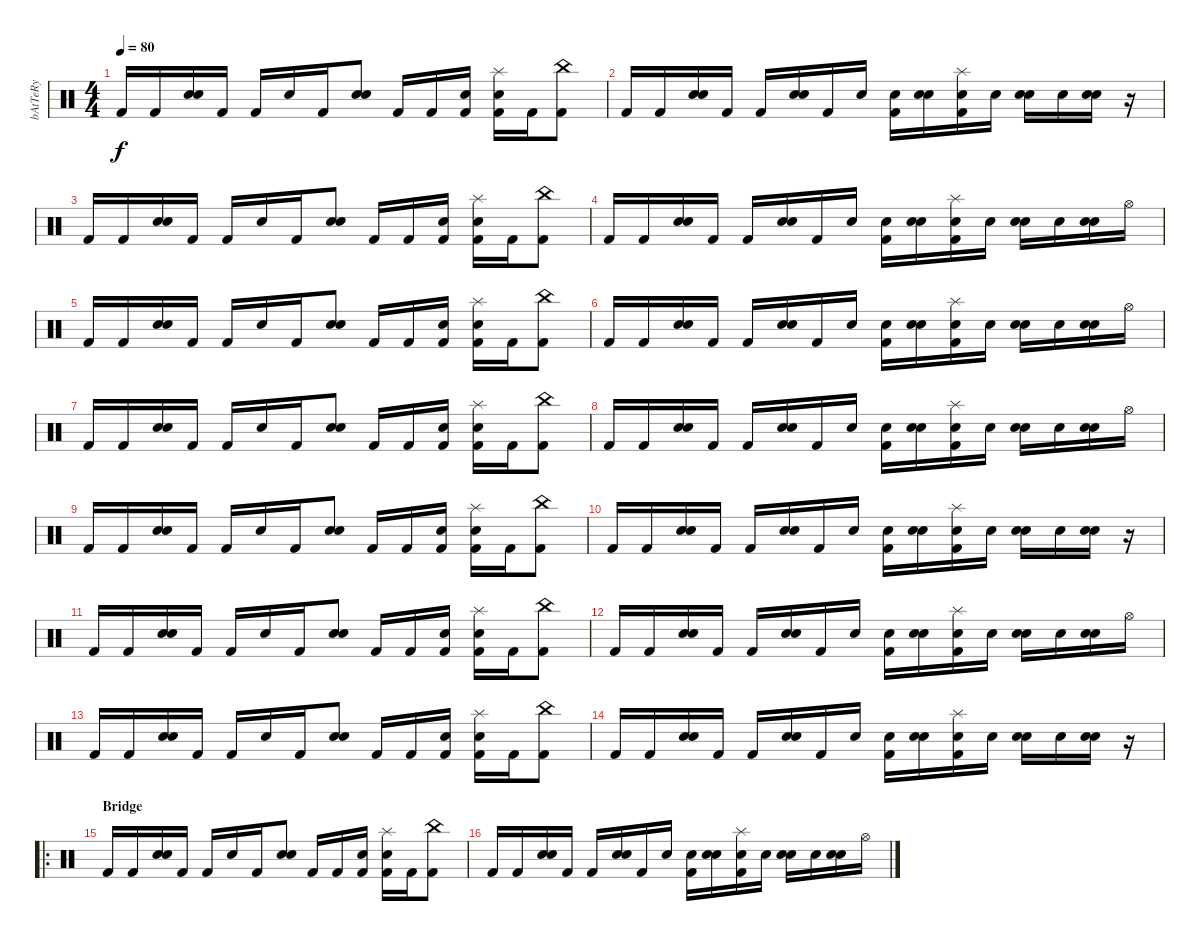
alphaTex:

\track ("bAtTeRy" "bAtTeRy") {instrument percussion}
\staff {score}
\articulation defaults
\ts (4 4)
\tempo 80
\clef neutral
\ks c "Kick (hit) 2".16{dy f} "Kick (hit) 2".16
("Snare (hit) 2" "Electric Snare (hit)").16 "Kick (hit) 2".16 "Kick (hit) 2".16 "Electric Snare (hit)".16 "Kick (hit) 2".16 ("Snare (hit) 2" "Electric Snare (hit)").8 "Kick (hit) 2".16 "Kick (hit) 2".16 ("Snare (hit) 2" "Kick (hit) 2").16 ("Splash (hit)" "Snare (hit) 2" "Kick (hit) 2").16 "Kick (hit) 2".16 ("China (hit)" "Kick (hit) 2").8 |
"Kick (hit) 2".16 "Kick (hit) 2".16 ("Snare (hit) 2" "Electric Snare (hit)").16 "Kick (hit) 2".16 "Kick (hit) 2".16 ("Snare (hit) 2" "Electric Snare (hit)").16 "Kick (hit) 2".16 "Electric Snare (hit)".16 ("Snare (hit) 2" "Kick (hit) 2").16 ("Snare (hit) 2" "Electric Snare (hit)").16 ("Splash (hit)" "Snare (hit) 2" "Kick (hit) 2").16 "Electric Snare (hit)".16 ("Snare (hit) 2" "Electric Snare (hit)").16 "Electric Snare (hit)".16 ("Snare (hit) 2" "Electric Snare (hit)").16 r.16 |
"Kick (hit) 2".16 "Kick (hit) 2".16 ("Snare (hit) 2" "Electric Snare (hit)").16 "Kick (hit) 2".16 "Kick (hit) 2".16 "Electric Snare (hit)".16 "Kick (hit) 2".16 ("Snare (hit) 2" "Electric Snare (hit)").8 "Kick (hit) 2".16 "Kick (hit) 2".16 ("Snare (hit) 2" "Kick (hit) 2").16 ("Splash (hit)" "Snare (hit) 2" "Kick (hit) 2").16 "Kick (hit) 2".16 ("China (hit)" "Kick (hit) 2").8 |
"Kick (hit) 2".16 "Kick (hit) 2".16 ("Snare (hit) 2" "Electric Snare (hit)").16 "Kick (hit) 2".16 "Kick (hit) 2".16 ("Snare (hit) 2" "Electric Snare (hit)").16 "Kick (hit) 2".16 "Electric Snare (hit)".16 ("Snare (hit) 2" "Kick (hit) 2").16 ("Snare (hit) 2" "Electric Snare (hit)").16 ("Splash (hit)" "Snare (hit) 2" "Kick (hit) 2").16 "Electric Snare (hit)".16 ("Snare (hit) 2" "Electric Snare (hit)").16 "Electric Snare (hit)".16 ("Snare (hit) 2" "Electric Snare (hit)").16 "Hi-Hat (open)".16 |
"Kick (hit) 2".16 "Kick (hit) 2".16 ("Snare (hit) 2" "Electric Snare (hit)").16 "Kick (hit) 2".16 "Kick (hit) 2".16 "Electric Snare (hit)".16 "Kick (hit) 2".16 ("Snare (hit) 2" "Electric Snare (hit)").8 "Kick (hit) 2".16 "Kick (hit) 2".16 ("Snare (hit) 2" "Kick (hit) 2").16 ("Splash (hit)" "Snare (hit) 2" "Kick (hit) 2").16 "Kick (hit) 2".16 ("China (hit)" "Kick (hit) 2").8 |
"Kick (hit) 2".16 "Kick (hit) 2".16 ("Snare (hit) 2" "Electric Snare (hit)").16 "Kick (hit) 2".16 "Kick (hit) 2".16 ("Snare (hit) 2" "Electric Snare (hit)").16 "Kick (hit) 2".16 "Electric Snare (hit)".16 ("Snare (hit) 2" "Kick (hit) 2").16 ("Snare (hit) 2" "Electric Snare (hit)").16 ("Splash (hit)" "Snare (hit) 2" "Kick (hit) 2").16 "Electric Snare (hit)".16 ("Snare (hit) 2" "Electric Snare (hit)").16 "Electric Snare (hit)".16 ("Snare (hit) 2" "Electric Snare (hit)").16 "Hi-Hat (open)".16 |
"Kick (hit) 2".16 "Kick (hit) 2".16 ("Snare (hit) 2" "Electric Snare (hit)").16 "Kick (hit) 2".16 "Kick (hit) 2".16 "Electric Snare (hit)".16 "Kick (hit) 2".16 ("Snare (hit) 2" "Electric Snare (hit)").8 "Kick (hit) 2".16 "Kick (hit) 2".16 ("Snare (hit) 2" "Kick (hit) 2").16 ("Splash (hit)" "Snare (hit) 2" "Kick (hit) 2").16 "Kick (hit) 2".16 ("China (hit)" "Kick (hit) 2").8 |
"Kick (hit) 2".16 "Kick (hit) 2".16 ("Snare (hit) 2" "Electric Snare (hit)").16 "Kick (hit) 2".16 "Kick (hit) 2".16 ("Snare (hit) 2" "Electric Snare (hit)").16 "Kick (hit) 2".16 "Electric Snare (hit)".16 ("Snare (hit) 2" "Kick (hit) 2").16 ("Snare (hit) 2" "Electric Snare (hit)").16 ("Splash (hit)" "Snare (hit) 2" "Kick (hit) 2").16 "Electric Snare (hit)".16 ("Snare (hit) 2" "Electric Snare (hit)").16 "Electric Snare (hit)".16 ("Snare (hit) 2" "Electric Snare (hit)").16 "Hi-Hat (open)".16 |
"Kick (hit) 2".16 "Kick (hit) 2".16 ("Snare (hit) 2" "Electric Snare (hit)").16 "Kick (hit) 2".16 "Kick (hit) 2".16 "Electric Snare (hit)".16 "Kick (hit) 2".16 ("Snare (hit) 2" "Electric Snare (hit)").8 "Kick (hit) 2".16 "Kick (hit) 2".16 ("Snare (hit) 2" "Kick (hit) 2").16 ("Splash (hit)" "Snare (hit) 2" "Kick (hit) 2").16 "Kick (hit) 2".16 ("China (hit)" "Kick (hit) 2").8 |
"Kick (hit) 2".16 "Kick (hit) 2".16 ("Snare (hit) 2" "Electric Snare (hit)").16 "Kick (hit) 2".16 "Kick (hit) 2".16 ("Snare (hit) 2" "Electric Snare (hit)").16 "Kick (hit) 2".16 "Electric Snare (hit)".16 ("Snare (hit) 2" "Kick (hit) 2").16 ("Snare (hit) 2" "Electric Snare (hit)").16 ("Splash (hit)" "Snare (hit) 2" "Kick (hit) 2").16 "Electric Snare (hit)".16 ("Snare (hit) 2" "Electric Snare (hit)").16 "Electric Snare (hit)".16 ("Snare (hit) 2" "Electric Snare (hit)").16 r.16 |
"Kick (hit) 2".16 "Kick (hit) 2".16 ("Snare (hit) 2" "Electric Snare (hit)").16 "Kick (hit) 2".16 "Kick (hit) 2".16 "Electric Snare (hit)".16 "Kick (hit) 2".16 ("Snare (hit) 2" "Electric Snare (hit)").8 "Kick (hit) 2".16 "Kick (hit) 2".16 ("Snare (hit) 2" "Kick (hit) 2").16 ("Splash (hit)" "Snare (hit) 2" "Kick (hit) 2").16 "Kick (hit) 2".16 ("China (hit)" "Kick (hit) 2").8 |
"Kick (hit) 2".16 "Kick (hit) 2".16 ("Snare (hit) 2" "Electric Snare (hit)").16 "Kick (hit) 2".16 "Kick (hit) 2".16 ("Snare (hit) 2" "Electric Snare (hit)").16 "Kick (hit) 2".16 "Electric Snare (hit)".16 ("Snare (hit) 2" "Kick (hit) 2").16 ("Snare (hit) 2" "Electric Snare (hit)").16 ("Splash (hit)" "Snare (hit) 2" "Kick (hit) 2").16 "Electric Snare (hit)".16 ("Snare (hit) 2" "Electric Snare (hit)").16 "Electric Snare (hit)".16 ("Snare (hit) 2" "Electric Snare (hit)").16 "Hi-Hat (open)".16 |
"Kick (hit) 2".16 "Kick (hit) 2".16 ("Snare (hit) 2" "Electric Snare (hit)").16 "Kick (hit) 2".16 "Kick (hit) 2".16 "Electric Snare (hit)".16 "Kick (hit) 2".16 ("Snare (hit) 2" "Electric Snare (hit)").8 "Kick (hit) 2".16 "Kick (hit) 2".16 ("Snare (hit) 2" "Kick (hit) 2").16 ("Splash (hit)" "Snare (hit) 2" "Kick (hit) 2").16 "Kick (hit) 2".16 ("China (hit)" "Kick (hit) 2").8 |
"Kick (hit) 2".16 "Kick (hit) 2".16 ("Snare (hit) 2" "Electric Snare (hit)").16 "Kick (hit) 2".16 "Kick (hit) 2".16 ("Snare (hit) 2" "Electric Snare (hit)").16 "Kick (hit) 2".16 "Electric Snare (hit)".16 ("Snare (hit) 2" "Kick (hit) 2").16 ("Snare (hit) 2" "Electric Snare (hit)").16 ("Splash (hit)" "Snare (hit) 2" "Kick (hit) 2").16 "Electric Snare (hit)".16 ("Snare (hit) 2" "Electric Snare (hit)").16 "Electric Snare (hit)".16 ("Snare (hit) 2" "Electric Snare (hit)").16 r.16 |
\ro
\section ("" "Bridge")
"Kick (hit) 2".16 "Kick (hit) 2".16 ("Snare (hit) 2" "Electric Snare (hit)").16 "Kick (hit) 2".16 "Kick (hit) 2".16 "Electric Snare (hit)".16 "Kick (hit) 2".16 ("Snare (hit) 2" "Electric Snare (hit)").8 "Kick (hit) 2".16 "Kick (hit) 2".16 ("Snare (hit) 2" "Kick (hit) 2").16 ("Splash (hit)" "Snare (hit) 2" "Kick (hit) 2").16 "Kick (hit) 2".16 ("China (hit)" "Kick (hit) 2").8 |
"Kick (hit) 2".16 "Kick (hit) 2".16 ("Snare (hit) 2" "Electric Snare (hit)").16 "Kick (hit) 2".16 "Kick (hit) 2".16 ("Snare (hit) 2" "Electric Snare (hit)").16 "Kick (hit) 2".16 "Electric Snare (hit)".16 ("Snare (hit) 2" "Kick (hit) 2").16 ("Snare (hit) 2" "Electric Snare (hit)").16 ("Splash (hit)" "Snare (hit) 2" "Kick (hit) 2").16 "Electric Snare (hit)".16 ("Snare (hit) 2" "Electric Snare (hit)").16 "Electric Snare (hit)".16 ("Snare (hit) 2" "Electric Snare (hit)").16 "Hi-Hat (open)".16
